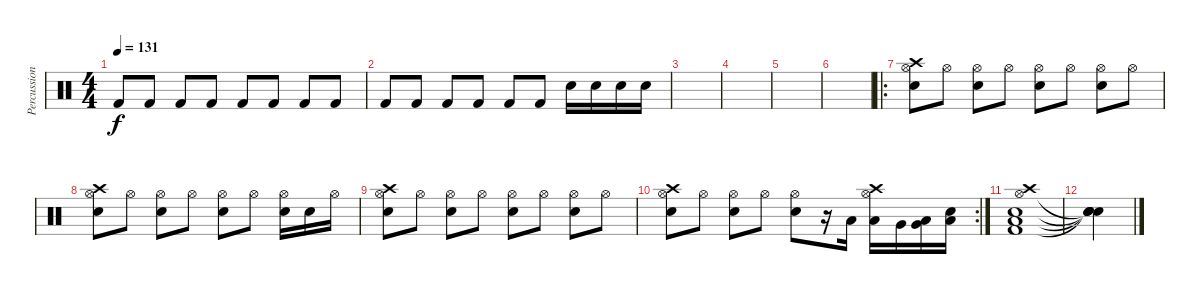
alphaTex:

\track ("Percussion" "Percussion") {instrument percussion}
\staff {score}
\articulation defaults
\ts (4 4)
\tempo 131
\clef neutral
\ks c "Kick (hit) 2".8{dy f} "Kick (hit) 2".8 "Kick (hit) 2".8 "Kick (hit) 2".8 "Kick (hit) 2".8 "Kick (hit) 2".8 "Kick (hit) 2".8 "Kick (hit) 2".8
|
"Kick (hit) 2".8 "Kick (hit) 2".8 "Kick (hit) 2".8 "Kick (hit) 2".8 "Kick (hit) 2".8 "Kick (hit) 2".8 "Electric Snare (hit)".16 "Electric Snare (hit)".16 "Electric Snare (hit)".16 "Electric Snare (hit)".16 |
|
|
|
|
\ro
("Hi-Hat (open)" "Electric Snare (hit)" "Crash high (hit)").8 "Hi-Hat (open)".8 ("Hi-Hat (open)" "Electric Snare (hit)").8 "Hi-Hat (open)".8 ("Hi-Hat (open)" "Electric Snare (hit)").8 "Hi-Hat (open)".8 ("Hi-Hat (open)" "Electric Snare (hit)").8 "Hi-Hat (open)".8 |
("Hi-Hat (open)" "Electric Snare (hit)" "Crash high (hit)").8 "Hi-Hat (open)".8 ("Hi-Hat (open)" "Electric Snare (hit)").8 "Hi-Hat (open)".8 ("Hi-Hat (open)" "Electric Snare (hit)").8 "Hi-Hat (open)".8 ("Hi-Hat (open)" "Electric Snare (hit)").16 "Electric Snare (hit)".16 "Hi-Hat (open)".16 |
("Hi-Hat (open)" "Electric Snare (hit)" "Crash high (hit)").8 "Hi-Hat (open)".8 ("Hi-Hat (open)" "Electric Snare (hit)").8 "Hi-Hat (open)".8 ("Hi-Hat (open)" "Electric Snare (hit)").8 "Hi-Hat (open)".8 ("Hi-Hat (open)" "Electric Snare (hit)").8 "Hi-Hat (open)".8 |
\rc 2
("Hi-Hat (open)" "Electric Snare (hit)" "Crash high (hit)").8 "Hi-Hat (open)".8 ("Hi-Hat (open)" "Electric Snare (hit)").8 "Hi-Hat (open)".8 ("Hi-Hat (open)" "Electric Snare (hit)").8 r.16 "Low Tom (hit)".16 ("Hi-Hat (open)" "Low Tom (hit)" "Crash high (hit)").16 "Very Low Tom (hit)".16 ("Very Low Tom (hit)" "Low Floor Tom (hit)").16 ("Electric Snare (hit)" "Low Floor Tom (hit)").16 |
("Hi-Hat (open)" "Low Floor Tom (hit)" "Electric Snare (hit)" "Kick (hit) 2" "Crash high (hit)").1 |
("Snare (hit)"{t} "Snare (hit)"{t} "Snare (hit)"{t} "Snare (hit)"{t}).4
